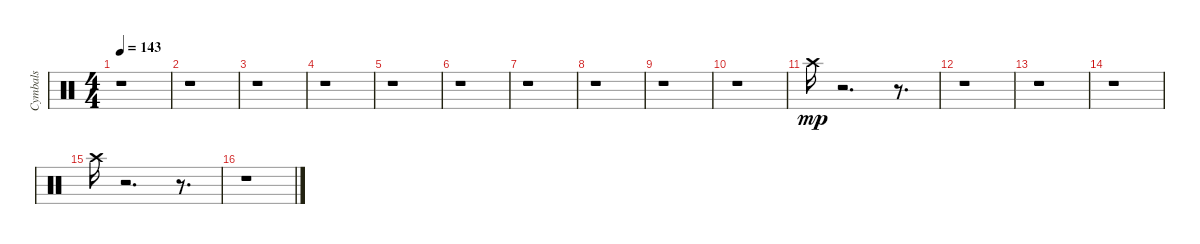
\track ("Cymbals  " "Cymbals  ") {instrument percussion}
\staff {score}
\articulation defaults
\ts (4 4)
\tempo 143
\clef neutral
\ks c
r.1{dy mp} |
r.1 |
r.1 |
r.1 |
r.1 |
r.1 |
r.1 |
r.1 |
r.1 |
r.1 |
"Crash high (hit)".16 r.2{d} r.8{d} |
r.1 |
r.1 |
r.1 |
"Crash high (hit)".16 r.2{d} r.8{d} |
r.1
